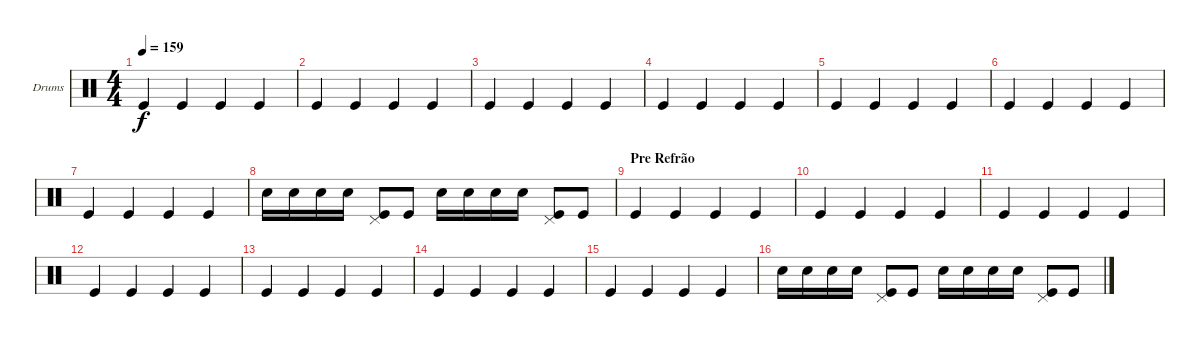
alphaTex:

\bracketExtendMode groupsimilarinstruments
\firstSystemTrackNameOrientation horizontal
\otherSystemsTrackNameOrientation horizontal
\track ("Drumkit" "Drums") {instrument percussion}
\staff {score}
\articulation defaults
\ts (4 4)
\tempo 159
\clef neutral
\scale
0.333333
\ks c "Kick (hit)".4{dy f} "Kick (hit)".4 "Kick (hit)".4 "Kick (hit)".4
|
\scale
0.333333 "Kick (hit)".4 "Kick (hit)".4 "Kick (hit)".4 "Kick (hit)".4 |
\scale
0.333333 "Kick (hit)".4 "Kick (hit)".4 "Kick (hit)".4 "Kick (hit)".4 |
\scale
0.333333 "Kick (hit)".4 "Kick (hit)".4 "Kick (hit)".4 "Kick (hit)".4 |
\scale
0.333333 "Kick (hit)".4 "Kick (hit)".4 "Kick (hit)".4 "Kick (hit)".4 |
\scale
0.333333 "Kick (hit)".4 "Kick (hit)".4 "Kick (hit)".4 "Kick (hit)".4 |
\scale
0.333333 "Kick (hit)".4 "Kick (hit)".4 "Kick (hit)".4 "Kick (hit)".4 |
\scale
0.333333 "Snare (hit) 2".16 "Snare (hit) 2".16 "Snare (hit) 2".16 "Snare (hit) 2".16 ("Kick (hit)" "Pedal Hi-Hat (hit)").8 "Kick (hit)".8 "Snare (hit) 2".16 "Snare (hit) 2".16 "Snare (hit) 2".16 "Snare (hit) 2".16 ("Kick (hit)" "Pedal Hi-Hat (hit)").8 "Kick (hit)".8 |
\section ("" "Pre Refrão")
\scale
0.333333 "Kick (hit)".4 "Kick (hit)".4 "Kick (hit)".4 "Kick (hit)".4 |
\scale
0.333333 "Kick (hit)".4 "Kick (hit)".4 "Kick (hit)".4 "Kick (hit)".4 |
\scale
0.333333 "Kick (hit)".4 "Kick (hit)".4 "Kick (hit)".4 "Kick (hit)".4 |
\scale
0.333333 "Kick (hit)".4 "Kick (hit)".4 "Kick (hit)".4 "Kick (hit)".4 |
\scale
0.333333 "Kick (hit)".4 "Kick (hit)".4 "Kick (hit)".4 "Kick (hit)".4 |
\scale
0.333333 "Kick (hit)".4 "Kick (hit)".4 "Kick (hit)".4 "Kick (hit)".4 |
\scale
0.333333 "Kick (hit)".4 "Kick (hit)".4 "Kick (hit)".4 "Kick (hit)".4 |
\scale
0.333333 "Snare (hit) 2".16 "Snare (hit) 2".16 "Snare (hit) 2".16 "Snare (hit) 2".16 ("Kick (hit)" "Pedal Hi-Hat (hit)").8 "Kick (hit)".8 "Snare (hit) 2".16 "Snare (hit) 2".16 "Snare (hit) 2".16 "Snare (hit) 2".16 ("Kick (hit)" "Pedal Hi-Hat (hit)").8 "Kick (hit)".8
